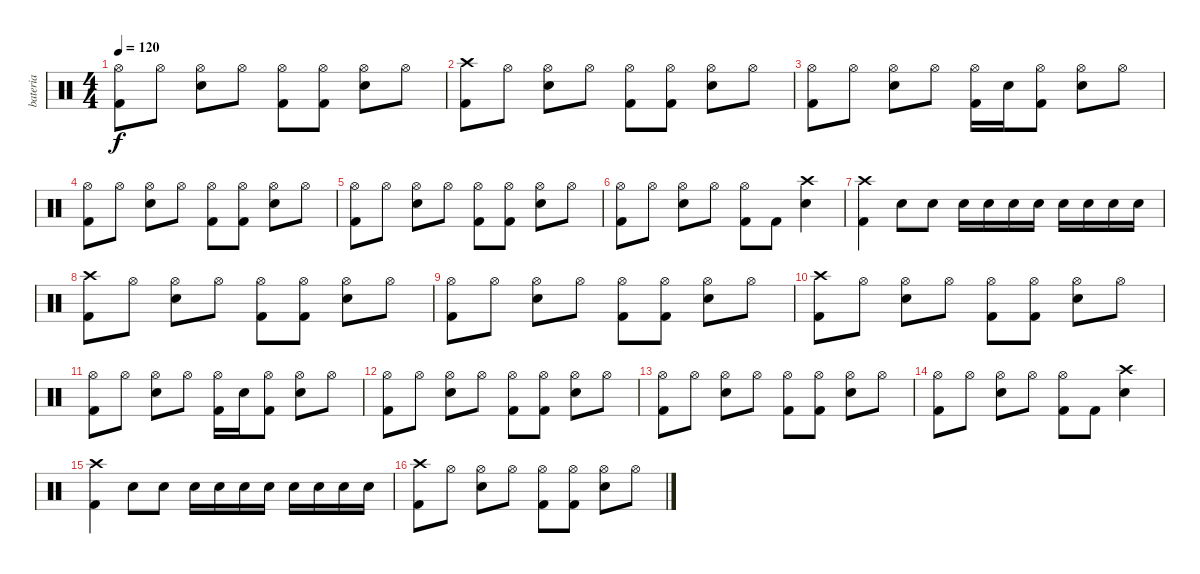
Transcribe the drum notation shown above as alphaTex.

\track ("bateria" "bateria") {instrument percussion}
\staff {score}
\articulation defaults
\ts (4 4)
\tempo 120
\clef neutral
\ks c
("Kick (hit) 2" "Hi-Hat (open)").8{dy f} "Hi-Hat (open)".8 ("Electric Snare (hit)" "Hi-Hat (open)").8 "Hi-Hat (open)".8 ("Kick (hit) 2" "Hi-Hat (open)").8 ("Kick (hit) 2" "Hi-Hat (open)").8 ("Electric Snare (hit)" "Hi-Hat (open)").8 "Hi-Hat (open)".8 |
("Crash high (hit)" "Kick (hit) 2").8 "Hi-Hat (open)".8 ("Electric Snare (hit)" "Hi-Hat (open)").8 "Hi-Hat (open)".8 ("Kick (hit) 2" "Hi-Hat (open)").8 ("Kick (hit) 2" "Hi-Hat (open)").8 ("Electric Snare (hit)" "Hi-Hat (open)").8 "Hi-Hat (open)".8 |
("Kick (hit) 2" "Hi-Hat (open)").8 "Hi-Hat (open)".8 ("Electric Snare (hit)" "Hi-Hat (open)").8 "Hi-Hat (open)".8 ("Kick (hit) 2" "Hi-Hat (open)").16 "Electric Snare (hit)".16 ("Kick (hit) 2" "Hi-Hat (open)").8 ("Electric Snare (hit)" "Hi-Hat (open)").8 "Hi-Hat (open)".8 |
("Kick (hit) 2" "Hi-Hat (open)").8 "Hi-Hat (open)".8 ("Electric Snare (hit)" "Hi-Hat (open)").8 "Hi-Hat (open)".8 ("Kick (hit) 2" "Hi-Hat (open)").8 ("Kick (hit) 2" "Hi-Hat (open)").8 ("Electric Snare (hit)" "Hi-Hat (open)").8 "Hi-Hat (open)".8 |
("Kick (hit) 2" "Hi-Hat (open)").8 "Hi-Hat (open)".8 ("Electric Snare (hit)" "Hi-Hat (open)").8 "Hi-Hat (open)".8 ("Kick (hit) 2" "Hi-Hat (open)").8 ("Kick (hit) 2" "Hi-Hat (open)").8 ("Electric Snare (hit)" "Hi-Hat (open)").8 "Hi-Hat (open)".8 |
("Kick (hit) 2" "Hi-Hat (open)").8 "Hi-Hat (open)".8 ("Electric Snare (hit)" "Hi-Hat (open)").8 "Hi-Hat (open)".8 ("Kick (hit) 2" "Hi-Hat (open)").8 "Kick (hit) 2".8 ("Crash high (hit)" "Electric Snare (hit)").4 |
("Crash high (hit)" "Kick (hit) 2").4 "Electric Snare (hit)".8 "Electric Snare (hit)".8 "Electric Snare (hit)".16 "Electric Snare (hit)".16 "Electric Snare (hit)".16 "Electric Snare (hit)".16 "Electric Snare (hit)".16 "Electric Snare (hit)".16 "Electric Snare (hit)".16 "Electric Snare (hit)".16 |
("Crash high (hit)" "Kick (hit) 2").8 "Hi-Hat (open)".8 ("Electric Snare (hit)" "Hi-Hat (open)").8 "Hi-Hat (open)".8 ("Kick (hit) 2" "Hi-Hat (open)").8 ("Kick (hit) 2" "Hi-Hat (open)").8 ("Electric Snare (hit)" "Hi-Hat (open)").8 "Hi-Hat (open)".8 |
("Kick (hit) 2" "Hi-Hat (open)").8 "Hi-Hat (open)".8 ("Electric Snare (hit)" "Hi-Hat (open)").8 "Hi-Hat (open)".8 ("Kick (hit) 2" "Hi-Hat (open)").8 ("Kick (hit) 2" "Hi-Hat (open)").8 ("Electric Snare (hit)" "Hi-Hat (open)").8 "Hi-Hat (open)".8 |
("Crash high (hit)" "Kick (hit) 2").8 "Hi-Hat (open)".8 ("Electric Snare (hit)" "Hi-Hat (open)").8 "Hi-Hat (open)".8 ("Kick (hit) 2" "Hi-Hat (open)").8 ("Kick (hit) 2" "Hi-Hat (open)").8 ("Electric Snare (hit)" "Hi-Hat (open)").8 "Hi-Hat (open)".8 |
("Kick (hit) 2" "Hi-Hat (open)").8 "Hi-Hat (open)".8 ("Electric Snare (hit)" "Hi-Hat (open)").8 "Hi-Hat (open)".8 ("Kick (hit) 2" "Hi-Hat (open)").16 "Electric Snare (hit)".16 ("Kick (hit) 2" "Hi-Hat (open)").8 ("Electric Snare (hit)" "Hi-Hat (open)").8 "Hi-Hat (open)".8 |
("Kick (hit) 2" "Hi-Hat (open)").8 "Hi-Hat (open)".8 ("Electric Snare (hit)" "Hi-Hat (open)").8 "Hi-Hat (open)".8 ("Kick (hit) 2" "Hi-Hat (open)").8 ("Kick (hit) 2" "Hi-Hat (open)").8 ("Electric Snare (hit)" "Hi-Hat (open)").8 "Hi-Hat (open)".8 |
("Kick (hit) 2" "Hi-Hat (open)").8 "Hi-Hat (open)".8 ("Electric Snare (hit)" "Hi-Hat (open)").8 "Hi-Hat (open)".8 ("Kick (hit) 2" "Hi-Hat (open)").8 ("Kick (hit) 2" "Hi-Hat (open)").8 ("Electric Snare (hit)" "Hi-Hat (open)").8 "Hi-Hat (open)".8 |
("Kick (hit) 2" "Hi-Hat (open)").8 "Hi-Hat (open)".8 ("Electric Snare (hit)" "Hi-Hat (open)").8 "Hi-Hat (open)".8 ("Kick (hit) 2" "Hi-Hat (open)").8 "Kick (hit) 2".8 ("Crash high (hit)" "Electric Snare (hit)").4 |
("Crash high (hit)" "Kick (hit) 2").4 "Electric Snare (hit)".8 "Electric Snare (hit)".8 "Electric Snare (hit)".16 "Electric Snare (hit)".16 "Electric Snare (hit)".16 "Electric Snare (hit)".16 "Electric Snare (hit)".16 "Electric Snare (hit)".16 "Electric Snare (hit)".16 "Electric Snare (hit)".16 |
("Crash high (hit)" "Kick (hit) 2").8 "Hi-Hat (open)".8 ("Electric Snare (hit)" "Hi-Hat (open)").8 "Hi-Hat (open)".8 ("Kick (hit) 2" "Hi-Hat (open)").8 ("Kick (hit) 2" "Hi-Hat (open)").8 ("Electric Snare (hit)" "Hi-Hat (open)").8 "Hi-Hat (open)".8
